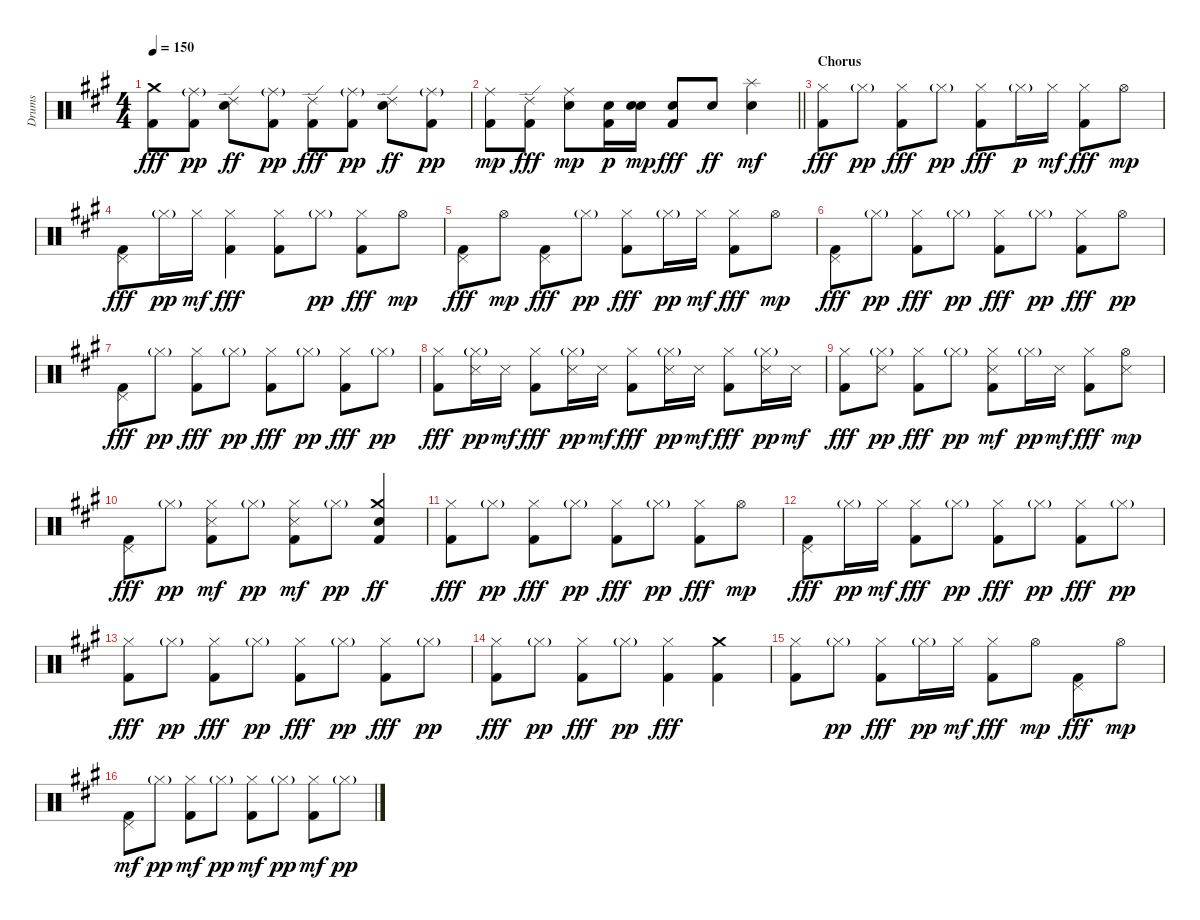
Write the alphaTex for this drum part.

\track ("Drums" "Drums") {instrument percussion}
\staff {score}
\articulation defaults
\ts (4 4)
\tempo 150
\clef neutral
\ks a
("Kick (hit) 2" "Crash medium (hit)").8{dy fff} ("Kick (hit) 2" "Ride (middle)"{g}).8{dy pp} ("Electric Snare (hit)" "Ride (edge) 2").8{dy ff} ("Kick (hit) 2" "Ride (middle)"{g}).8{dy pp} ("Kick (hit) 2" "Ride (edge) 2").8{dy fff} ("Kick (hit) 2" "Ride (middle)"{g}).8{dy pp} ("Electric Snare (hit)" "Ride (edge) 2").8{dy ff} ("Kick (hit) 2" "Ride (middle)"{g}).8{dy pp} |
\barLineRight lightlight
("Kick (hit) 2" "Ride (middle)").8{dy mp} ("Kick (hit) 2" "Ride (edge) 2").8{dy fff} ("Electric Snare (hit)" "Ride (middle)").8{dy mp} ("Kick (hit) 2" "Electric Snare (hit)").16{dy p} ("Electric Snare (hit)" "Snare (hit) 2").16{dy mp} ("Kick (hit) 2" "Electric Snare (hit)").8{dy fff} "Electric Snare (hit)".8{dy ff} ("Electric Snare (hit)" "Splash (hit)").4{dy mf} |
\section ("" "Chorus")
("Kick (hit) 2" "Hi-Hat (closed)").8{dy fff} "Hi-Hat (closed)"{g}.8{dy pp} ("Kick (hit) 2" "Hi-Hat (closed)").8{dy fff} "Hi-Hat (closed)"{g}.8{dy pp} ("Kick (hit) 2" "Hi-Hat (closed)").8{dy fff} "Hi-Hat (closed)"{g}.16{dy p} "Hi-Hat (closed)".16{dy mf} ("Kick (hit) 2" "Hi-Hat (closed)").8{dy fff} "Hi-Hat (open)".8{dy mp} |
("Kick (hit) 2" "Pedal Hi-Hat (hit)").8{dy fff} "Hi-Hat (closed)"{g}.16{dy pp} "Hi-Hat (closed)".16{dy mf} ("Kick (hit) 2" "Hi-Hat (closed)").4{dy fff} ("Kick (hit) 2" "Hi-Hat (closed)").8 "Hi-Hat (closed)"{g}.8{dy pp} ("Kick (hit) 2" "Hi-Hat (closed)").8{dy fff} "Hi-Hat (open)".8{dy mp} |
("Kick (hit) 2" "Pedal Hi-Hat (hit)").8{dy fff} "Hi-Hat (open)".8{dy mp} ("Kick (hit) 2" "Pedal Hi-Hat (hit)").8{dy fff} "Hi-Hat (closed)"{g}.8{dy pp} ("Kick (hit) 2" "Hi-Hat (closed)").8{dy fff} "Hi-Hat (closed)"{g}.16{dy pp} "Hi-Hat (closed)".16{dy mf} ("Kick (hit) 2" "Hi-Hat (closed)").8{dy fff} "Hi-Hat (open)".8{dy mp} |
("Kick (hit) 2" "Pedal Hi-Hat (hit)").8{dy fff} "Hi-Hat (closed)"{g}.8{dy pp} ("Kick (hit) 2" "Hi-Hat (closed)").8{dy fff} "Hi-Hat (closed)"{g}.8{dy pp} ("Kick (hit) 2" "Hi-Hat (closed)").8{dy fff} "Hi-Hat (closed)"{g}.8{dy pp} ("Kick (hit) 2" "Hi-Hat (closed)").8{dy fff} "Hi-Hat (open)".8{dy pp} |
("Kick (hit) 2" "Pedal Hi-Hat (hit)").8{dy fff} "Hi-Hat (closed)"{g}.8{dy pp} ("Kick (hit) 2" "Hi-Hat (closed)").8{dy fff} "Hi-Hat (closed)"{g}.8{dy pp} ("Kick (hit) 2" "Hi-Hat (closed)").8{dy fff} "Hi-Hat (closed)"{g}.8{dy pp} ("Kick (hit) 2" "Hi-Hat (closed)").8{dy fff} "Hi-Hat (closed)"{g}.8{dy pp} |
("Kick (hit) 2" "Hi-Hat (closed)").8{dy fff} ("Snare (side stick) 3" "Hi-Hat (closed)"{g}).16{dy pp} "Snare (side stick) 3".16{dy mf} ("Kick (hit) 2" "Hi-Hat (closed)").8{dy fff} ("Snare (side stick) 3" "Hi-Hat (closed)"{g}).16{dy pp} "Snare (side stick) 3".16{dy mf} ("Kick (hit) 2" "Hi-Hat (closed)").8{dy fff} ("Snare (side stick) 3" "Hi-Hat (closed)"{g}).16{dy pp} "Snare (side stick) 3".16{dy mf} ("Kick (hit) 2" "Hi-Hat (closed)").8{dy fff} ("Snare (side stick) 3" "Hi-Hat (closed)"{g}).16{dy pp} "Snare (side stick) 3".16{dy mf} |
("Kick (hit) 2" "Hi-Hat (closed)").8{dy fff} ("Snare (side stick) 3" "Hi-Hat (closed)"{g}).8{dy pp} ("Kick (hit) 2" "Hi-Hat (closed)").8{dy fff} "Hi-Hat (closed)"{g}.8{dy pp} ("Kick (hit) 2" "Snare (side stick) 3" "Hi-Hat (closed)").8{dy mf} "Hi-Hat (closed)"{g}.16{dy pp} "Snare (side stick) 3".16{dy mf} ("Kick (hit) 2" "Hi-Hat (closed)").8{dy fff} ("Snare (side stick) 3" "Hi-Hat (open)").8{dy mp} |
("Kick (hit) 2" "Pedal Hi-Hat (hit)").8{dy fff} "Hi-Hat (closed)"{g}.8{dy pp} ("Kick (hit) 2" "Snare (side stick) 3" "Hi-Hat (closed)").8{dy mf} "Hi-Hat (closed)"{g}.8{dy pp} ("Kick (hit) 2" "Snare (side stick) 3" "Hi-Hat (closed)").8{dy mf} "Hi-Hat (closed)"{g}.8{dy pp} ("Kick (hit) 2" "Electric Snare (hit)" "Crash medium (hit)").4{dy ff} |
("Kick (hit) 2" "Hi-Hat (closed)").8{dy fff} "Hi-Hat (closed)"{g}.8{dy pp} ("Kick (hit) 2" "Hi-Hat (closed)").8{dy fff} "Hi-Hat (closed)"{g}.8{dy pp} ("Kick (hit) 2" "Hi-Hat (closed)").8{dy fff} "Hi-Hat (closed)"{g}.8{dy pp} ("Kick (hit) 2" "Hi-Hat (closed)").8{dy fff} "Hi-Hat (open)".8{dy mp} |
("Kick (hit) 2" "Pedal Hi-Hat (hit)").8{dy fff} "Hi-Hat (closed)"{g}.16{dy pp} "Hi-Hat (closed)".16{dy mf} ("Kick (hit) 2" "Hi-Hat (closed)").8{dy fff} "Hi-Hat (closed)"{g}.8{dy pp} ("Kick (hit) 2" "Hi-Hat (closed)").8{dy fff} "Hi-Hat (closed)"{g}.8{dy pp} ("Kick (hit) 2" "Hi-Hat (closed)").8{dy fff} "Hi-Hat (closed)"{g}.8{dy pp} |
("Kick (hit) 2" "Hi-Hat (closed)").8{dy fff} "Hi-Hat (closed)"{g}.8{dy pp} ("Kick (hit) 2" "Hi-Hat (closed)").8{dy fff} "Hi-Hat (closed)"{g}.8{dy pp} ("Kick (hit) 2" "Hi-Hat (closed)").8{dy fff} "Hi-Hat (closed)"{g}.8{dy pp} ("Kick (hit) 2" "Hi-Hat (closed)").8{dy fff} "Hi-Hat (closed)"{g}.8{dy pp} |
("Kick (hit) 2" "Hi-Hat (closed)").8{dy fff} "Hi-Hat (closed)"{g}.8{dy pp} ("Kick (hit) 2" "Hi-Hat (closed)").8{dy fff} "Hi-Hat (closed)"{g}.8{dy pp} ("Kick (hit) 2" "Hi-Hat (closed)").4{dy fff} ("Kick (hit) 2" "Crash medium (hit)").4 |
("Kick (hit) 2" "Hi-Hat (closed)").8 "Hi-Hat (closed)"{g}.8{dy pp} ("Kick (hit) 2" "Hi-Hat (closed)").8{dy fff} "Hi-Hat (closed)"{g}.16{dy pp} "Hi-Hat (closed)".16{dy mf} ("Kick (hit) 2" "Hi-Hat (closed)").8{dy fff} "Hi-Hat (open)".8{dy mp} ("Kick (hit) 2" "Pedal Hi-Hat (hit)").8{dy fff} "Hi-Hat (open)".8{dy mp} |
("Kick (hit) 2" "Pedal Hi-Hat (hit)").8{dy mf} "Hi-Hat (closed)"{g}.8{dy pp} ("Kick (hit) 2" "Hi-Hat (closed)").8{dy mf} "Hi-Hat (closed)"{g}.8{dy pp} ("Kick (hit) 2" "Hi-Hat (closed)").8{dy mf} "Hi-Hat (closed)"{g}.8{dy pp} ("Kick (hit) 2" "Hi-Hat (closed)").8{dy mf} "Hi-Hat (closed)"{g}.8{dy pp}
